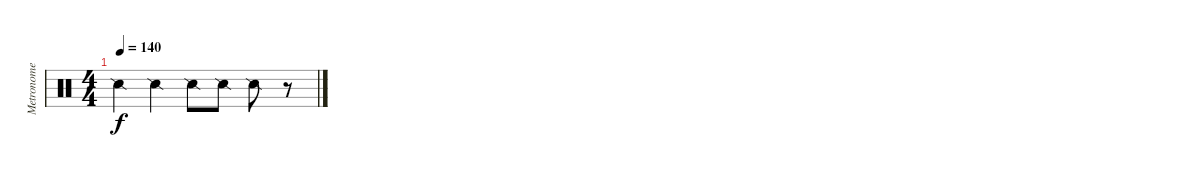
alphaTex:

\track ("Metronome" "Metronome") {instrument percussion}
\staff {score}
\articulation defaults
\ts (4 4)
\tempo 140
\clef neutral
\ks c "Snare (side stick) 2".4{dy f} "Snare (side stick) 2".4 "Snare (side stick) 2".8 "Snare (side stick) 2".8 "Snare (side stick) 2".8
r.8
